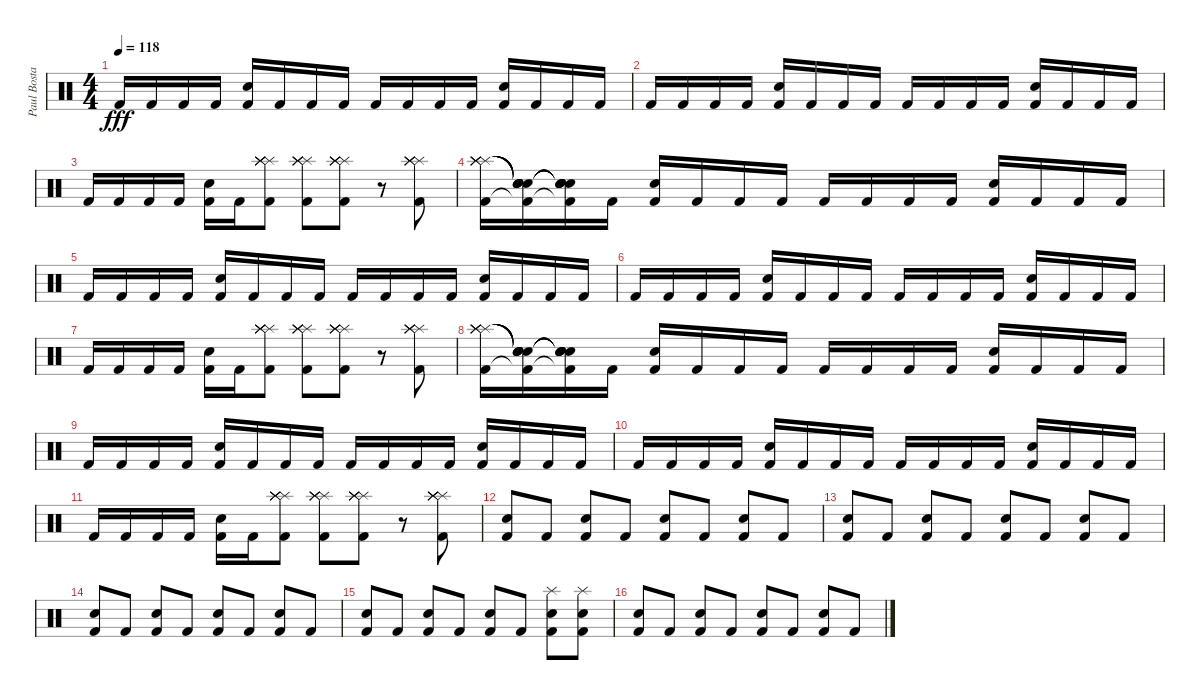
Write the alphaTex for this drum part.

\track ("Paul Bostaph" "Paul Bosta") {instrument percussion}
\staff {score}
\articulation defaults
\ts (4 4)
\tempo 118
\clef neutral
\ks c "Kick (hit) 2".16{dy fff} "Kick (hit) 2".16 "Kick (hit) 2".16 "Kick (hit) 2".16
("Snare (hit) 2" "Kick (hit) 2").16 "Kick (hit) 2".16 "Kick (hit) 2".16 "Kick (hit) 2".16 "Kick (hit) 2".16 "Kick (hit) 2".16 "Kick (hit) 2".16 "Kick (hit) 2".16 ("Snare (hit) 2" "Kick (hit) 2").16 "Kick (hit) 2".16 "Kick (hit) 2".16 "Kick (hit) 2".16 |
"Kick (hit) 2".16 "Kick (hit) 2".16 "Kick (hit) 2".16 "Kick (hit) 2".16 ("Snare (hit) 2" "Kick (hit) 2").16 "Kick (hit) 2".16 "Kick (hit) 2".16 "Kick (hit) 2".16 "Kick (hit) 2".16 "Kick (hit) 2".16 "Kick (hit) 2".16 "Kick (hit) 2".16 ("Snare (hit) 2" "Kick (hit) 2").16 "Kick (hit) 2".16 "Kick (hit) 2".16 "Kick (hit) 2".16 |
"Kick (hit) 2".16 "Kick (hit) 2".16 "Kick (hit) 2".16 "Kick (hit) 2".16 ("Snare (hit) 2" "Kick (hit) 2").16 "Kick (hit) 2".16 ("Splash (hit)" "Splash (hit)" "Splash (hit)" "Splash (hit)" "Splash (hit)" "Kick (hit) 2").8 ("Splash (hit)" "Splash (hit)" "Splash (hit)" "Splash (hit)" "Splash (hit)" "Kick (hit) 2").8 ("Splash (hit)" "Splash (hit)" "Splash (hit)" "Splash (hit)" "Splash (hit)" "Kick (hit) 2").8 r.8 ("Splash (hit)" "Splash (hit)" "Splash (hit)" "Splash (hit)" "Splash (hit)" "Kick (hit) 2").8 |
("Splash (hit)" "Splash (hit)" "Splash (hit)" "Splash (hit)" "Splash (hit)" "Kick (hit) 2").16 ("Snare (hit)"{t} "Snare (hit)"{t} "Snare (hit)"{t} "Snare (hit)"{t} "Snare (hit)"{t} "Kick (hit) 2"{t}).16 ("Snare (hit)"{t} "Snare (hit)"{t} "Snare (hit)"{t} "Snare (hit)"{t} "Snare (hit)"{t} "Kick (hit) 2"{t}).16 "Kick (hit) 2".16 ("Snare (hit) 2" "Kick (hit) 2").16 "Kick (hit) 2".16 "Kick (hit) 2".16 "Kick (hit) 2".16 "Kick (hit) 2".16 "Kick (hit) 2".16 "Kick (hit) 2".16 "Kick (hit) 2".16 ("Snare (hit) 2" "Kick (hit) 2").16 "Kick (hit) 2".16 "Kick (hit) 2".16 "Kick (hit) 2".16 |
"Kick (hit) 2".16 "Kick (hit) 2".16 "Kick (hit) 2".16 "Kick (hit) 2".16 ("Snare (hit) 2" "Kick (hit) 2").16 "Kick (hit) 2".16 "Kick (hit) 2".16 "Kick (hit) 2".16 "Kick (hit) 2".16 "Kick (hit) 2".16 "Kick (hit) 2".16 "Kick (hit) 2".16 ("Snare (hit) 2" "Kick (hit) 2").16 "Kick (hit) 2".16 "Kick (hit) 2".16 "Kick (hit) 2".16 |
"Kick (hit) 2".16 "Kick (hit) 2".16 "Kick (hit) 2".16 "Kick (hit) 2".16 ("Snare (hit) 2" "Kick (hit) 2").16 "Kick (hit) 2".16 "Kick (hit) 2".16 "Kick (hit) 2".16 "Kick (hit) 2".16 "Kick (hit) 2".16 "Kick (hit) 2".16 "Kick (hit) 2".16 ("Snare (hit) 2" "Kick (hit) 2").16 "Kick (hit) 2".16 "Kick (hit) 2".16 "Kick (hit) 2".16 |
"Kick (hit) 2".16 "Kick (hit) 2".16 "Kick (hit) 2".16 "Kick (hit) 2".16 ("Snare (hit) 2" "Kick (hit) 2").16 "Kick (hit) 2".16 ("Splash (hit)" "Splash (hit)" "Splash (hit)" "Splash (hit)" "Splash (hit)" "Kick (hit) 2").8 ("Splash (hit)" "Splash (hit)" "Splash (hit)" "Splash (hit)" "Splash (hit)" "Kick (hit) 2").8 ("Splash (hit)" "Splash (hit)" "Splash (hit)" "Splash (hit)" "Splash (hit)" "Kick (hit) 2").8 r.8 ("Splash (hit)" "Splash (hit)" "Splash (hit)" "Splash (hit)" "Splash (hit)" "Kick (hit) 2").8 |
("Splash (hit)" "Splash (hit)" "Splash (hit)" "Splash (hit)" "Splash (hit)" "Kick (hit) 2").16 ("Snare (hit)"{t} "Snare (hit)"{t} "Snare (hit)"{t} "Snare (hit)"{t} "Snare (hit)"{t} "Kick (hit) 2"{t}).16 ("Snare (hit)"{t} "Snare (hit)"{t} "Snare (hit)"{t} "Snare (hit)"{t} "Snare (hit)"{t} "Kick (hit) 2"{t}).16 "Kick (hit) 2".16 ("Snare (hit) 2" "Kick (hit) 2").16 "Kick (hit) 2".16 "Kick (hit) 2".16 "Kick (hit) 2".16 "Kick (hit) 2".16 "Kick (hit) 2".16 "Kick (hit) 2".16 "Kick (hit) 2".16 ("Snare (hit) 2" "Kick (hit) 2").16 "Kick (hit) 2".16 "Kick (hit) 2".16 "Kick (hit) 2".16 |
"Kick (hit) 2".16 "Kick (hit) 2".16 "Kick (hit) 2".16 "Kick (hit) 2".16 ("Snare (hit) 2" "Kick (hit) 2").16 "Kick (hit) 2".16 "Kick (hit) 2".16 "Kick (hit) 2".16 "Kick (hit) 2".16 "Kick (hit) 2".16 "Kick (hit) 2".16 "Kick (hit) 2".16 ("Snare (hit) 2" "Kick (hit) 2").16 "Kick (hit) 2".16 "Kick (hit) 2".16 "Kick (hit) 2".16 |
"Kick (hit) 2".16 "Kick (hit) 2".16 "Kick (hit) 2".16 "Kick (hit) 2".16 ("Snare (hit) 2" "Kick (hit) 2").16 "Kick (hit) 2".16 "Kick (hit) 2".16 "Kick (hit) 2".16 "Kick (hit) 2".16 "Kick (hit) 2".16 "Kick (hit) 2".16 "Kick (hit) 2".16 ("Snare (hit) 2" "Kick (hit) 2").16 "Kick (hit) 2".16 "Kick (hit) 2".16 "Kick (hit) 2".16 |
"Kick (hit) 2".16 "Kick (hit) 2".16 "Kick (hit) 2".16 "Kick (hit) 2".16 ("Snare (hit) 2" "Kick (hit) 2").16 "Kick (hit) 2".16 ("Splash (hit)" "Splash (hit)" "Splash (hit)" "Splash (hit)" "Splash (hit)" "Kick (hit) 2").8 ("Splash (hit)" "Splash (hit)" "Splash (hit)" "Splash (hit)" "Splash (hit)" "Kick (hit) 2").8 ("Splash (hit)" "Splash (hit)" "Splash (hit)" "Splash (hit)" "Splash (hit)" "Kick (hit) 2").8 r.8 ("Splash (hit)" "Splash (hit)" "Splash (hit)" "Splash (hit)" "Splash (hit)" "Kick (hit) 2").8 |
("Snare (hit) 2" "Kick (hit) 2").8 "Kick (hit) 2".8 ("Snare (hit) 2" "Kick (hit) 2").8 "Kick (hit) 2".8 ("Snare (hit) 2" "Kick (hit) 2").8 "Kick (hit) 2".8 ("Snare (hit) 2" "Kick (hit) 2").8 "Kick (hit) 2".8 |
("Snare (hit) 2" "Kick (hit) 2").8 "Kick (hit) 2".8 ("Snare (hit) 2" "Kick (hit) 2").8 "Kick (hit) 2".8 ("Snare (hit) 2" "Kick (hit) 2").8 "Kick (hit) 2".8 ("Snare (hit) 2" "Kick (hit) 2").8 "Kick (hit) 2".8 |
("Snare (hit) 2" "Kick (hit) 2").8 "Kick (hit) 2".8 ("Snare (hit) 2" "Kick (hit) 2").8 "Kick (hit) 2".8 ("Snare (hit) 2" "Kick (hit) 2").8 "Kick (hit) 2".8 ("Snare (hit) 2" "Kick (hit) 2").8 "Kick (hit) 2".8 |
("Snare (hit) 2" "Kick (hit) 2").8 "Kick (hit) 2".8 ("Snare (hit) 2" "Kick (hit) 2").8 "Kick (hit) 2".8 ("Snare (hit) 2" "Kick (hit) 2").8 "Kick (hit) 2".8 ("Splash (hit)" "Snare (hit) 2" "Kick (hit) 2").8 ("Splash (hit)" "Snare (hit) 2" "Kick (hit) 2").8 |
("Snare (hit) 2" "Kick (hit) 2").8 "Kick (hit) 2".8 ("Snare (hit) 2" "Kick (hit) 2").8 "Kick (hit) 2".8 ("Snare (hit) 2" "Kick (hit) 2").8 "Kick (hit) 2".8 ("Snare (hit) 2" "Kick (hit) 2").8 "Kick (hit) 2".8
